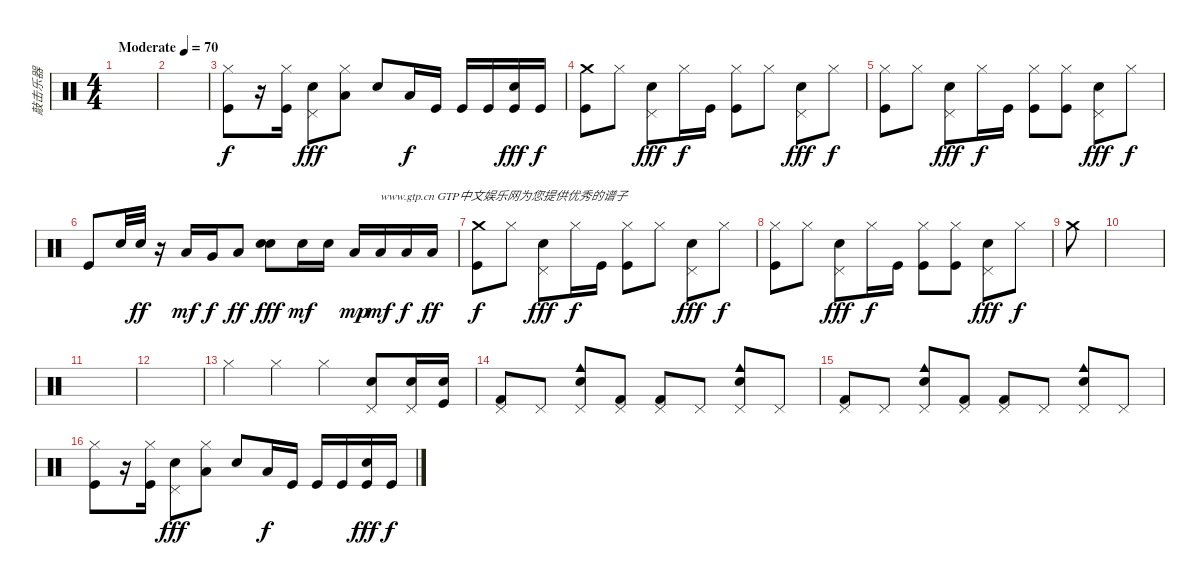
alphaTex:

\track ("敲击乐器" "敲击乐器") {instrument percussion}
\staff {score}
\articulation defaults
\ts (4 4)
\tempo (70 "Moderate")
\clef neutral
\ks c
|
|
("Hi-Hat (closed)" "Kick (hit)").8 r.16 ("Hi-Hat (closed)" "Kick (hit)").16 ("Pedal Hi-Hat (hit)" "Snare (hit) 2").8{dy fff} ("Hi-Hat (closed)" "Low Tom (hit)").8 "Snare (hit) 2".8 "Low Floor Tom (hit)".16{dy f} "Kick (hit)".16 "Kick (hit)".16 "Kick (hit)".16 ("Snare (hit) 2" "Kick (hit)").16{dy fff} "Kick (hit)".16{dy f} |
("Crash medium (hit)" "Kick (hit)").8 "Hi-Hat (closed)".8 ("Pedal Hi-Hat (hit)" "Snare (hit) 2").8{dy fff} "Hi-Hat (closed)".16{dy f} "Kick (hit)".16 ("Hi-Hat (closed)" "Kick (hit)").8 "Hi-Hat (closed)".8 ("Pedal Hi-Hat (hit)" "Snare (hit) 2").8{dy fff} "Hi-Hat (closed)".8{dy f} |
("Hi-Hat (closed)" "Kick (hit)").8 "Hi-Hat (closed)".8 ("Pedal Hi-Hat (hit)" "Snare (hit) 2").8{dy fff} "Hi-Hat (closed)".16{dy f} "Kick (hit)".16 ("Hi-Hat (closed)" "Kick (hit)").8 ("Hi-Hat (closed)" "Kick (hit)").8 ("Pedal Hi-Hat (hit)" "Snare (hit) 2").8{dy fff} "Hi-Hat (closed)".8{dy f} |
"Kick (hit)".8 "Electric Snare (hit)".32 "Snare (hit) 2".32{dy ff} r.16 "Low Tom (hit)".16{dy mf} "Very Low Tom (hit)".16{dy f} "Low Floor Tom (hit)".8{dy ff} ("Electric Snare (hit)" "Electric Snare (hit)").8{dy fff} "Snare (hit) 2".16{dy mf} "Snare (hit) 2".16 "Low Floor Tom (hit)".16{dy mp} "Low Floor Tom (hit)".16{txt "www.gtp.cn GTP中文娱乐网为您提供优秀的谱子" dy mf} "Low Floor Tom (hit)".16{dy f} "Low Floor Tom (hit)".16{dy ff} |
("Crash medium (hit)" "Kick (hit)").8{dy f} "Hi-Hat (closed)".8 ("Pedal Hi-Hat (hit)" "Snare (hit) 2").8{dy fff} "Hi-Hat (closed)".16{dy f} "Kick (hit)".16 ("Hi-Hat (closed)" "Kick (hit)").8 "Hi-Hat (closed)".8 ("Pedal Hi-Hat (hit)" "Snare (hit) 2").8{dy fff} "Hi-Hat (closed)".8{dy f} |
("Hi-Hat (closed)" "Kick (hit)").8 "Hi-Hat (closed)".8 ("Pedal Hi-Hat (hit)" "Snare (hit) 2").8{dy fff} "Hi-Hat (closed)".16{dy f} "Kick (hit)".16 ("Hi-Hat (closed)" "Kick (hit)").8 ("Hi-Hat (closed)" "Kick (hit)").8 ("Pedal Hi-Hat (hit)" "Snare (hit) 2").8{dy fff} "Hi-Hat (closed)".8{dy f} |
"Crash medium (hit)".8 |
|
|
|
"Hi-Hat (closed)".4 "Hi-Hat (closed)".4 "Hi-Hat (closed)".4 ("Electric Snare (hit)" "Pedal Hi-Hat (hit)").8 ("Electric Snare (hit)" "Pedal Hi-Hat (hit)").16 ("Electric Snare (hit)" "Kick (hit)").16 |
("Kick (hit) 2" "Pedal Hi-Hat (hit)").8 "Pedal Hi-Hat (hit)".8 ("Cowbell medium (hit)" "Electric Snare (hit)" "Pedal Hi-Hat (hit)").8 ("Kick (hit) 2" "Pedal Hi-Hat (hit)").8 ("Kick (hit) 2" "Pedal Hi-Hat (hit)").8 "Pedal Hi-Hat (hit)".8 ("Cowbell medium (hit)" "Electric Snare (hit)" "Pedal Hi-Hat (hit)").8 "Pedal Hi-Hat (hit)".8 |
("Kick (hit) 2" "Pedal Hi-Hat (hit)").8 "Pedal Hi-Hat (hit)".8 ("Cowbell medium (hit)" "Electric Snare (hit)" "Pedal Hi-Hat (hit)").8 ("Kick (hit) 2" "Pedal Hi-Hat (hit)").8 ("Kick (hit) 2" "Pedal Hi-Hat (hit)").8 "Pedal Hi-Hat (hit)".8 ("Cowbell medium (hit)" "Electric Snare (hit)" "Pedal Hi-Hat (hit)").8 "Pedal Hi-Hat (hit)".8 |
("Hi-Hat (closed)" "Kick (hit)").8 r.16 ("Hi-Hat (closed)" "Kick (hit)").16 ("Pedal Hi-Hat (hit)" "Snare (hit) 2").8{dy fff} ("Hi-Hat (closed)" "Low Tom (hit)").8 "Snare (hit) 2".8 "Low Floor Tom (hit)".16{dy f} "Kick (hit)".16 "Kick (hit)".16 "Kick (hit)".16 ("Snare (hit) 2" "Kick (hit)").16{dy fff} "Kick (hit)".16{dy f}
